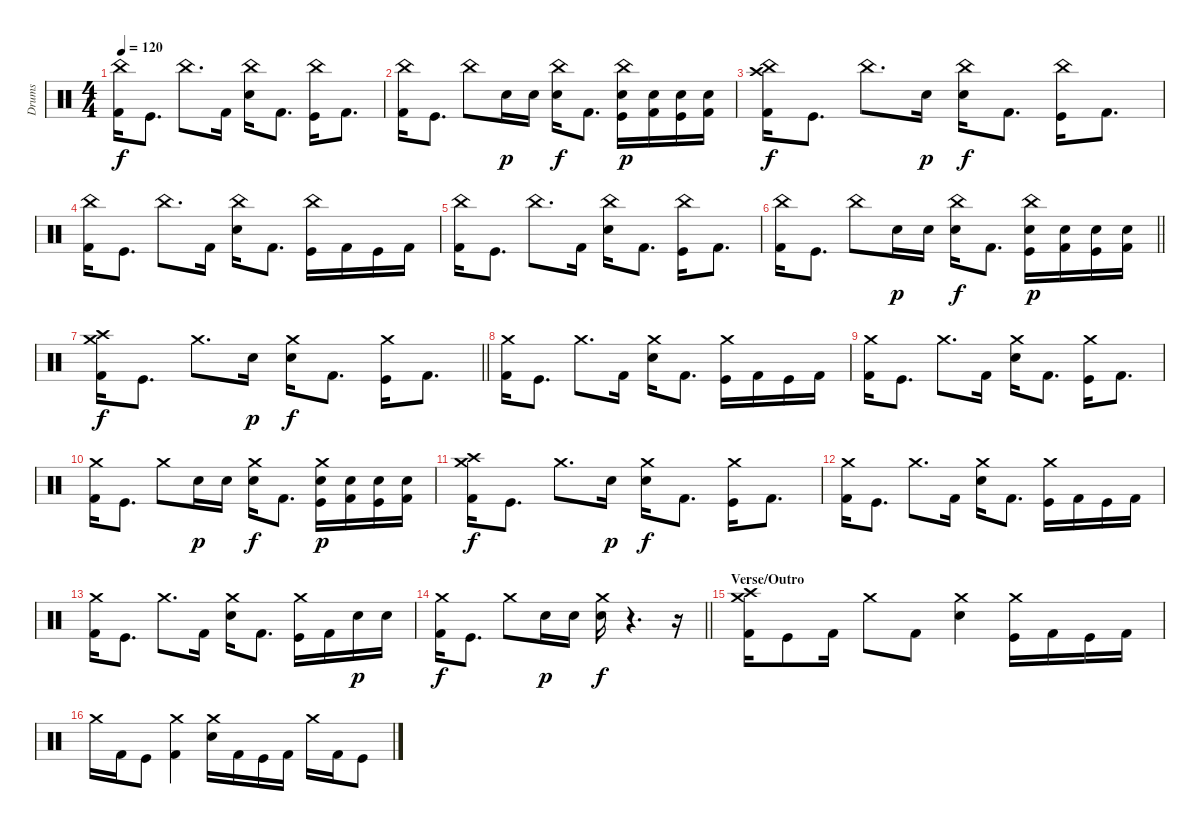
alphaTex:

\track ("Drums" "Drums") {instrument percussion}
\staff {score}
\articulation defaults
\ts (4 4)
\tempo 120
\clef neutral
\ks c
("China (hit)" "Kick (hit) 2").16{dy f} "Kick (hit)".8{d} "China (hit)".8{d} "Kick (hit) 2".16 ("China (hit)" "Electric Snare (hit)").16 "Kick (hit) 2".8{d} ("China (hit)" "Kick (hit)").16 "Kick (hit) 2".8{d} |
("China (hit)" "Kick (hit) 2").16 "Kick (hit)".8{d} "China (hit)".8 "Electric Snare (hit)".16{dy p} "Electric Snare (hit)".16 ("China (hit)" "Electric Snare (hit)").16{dy f} "Kick (hit) 2".8{d} ("China (hit)" "Electric Snare (hit)" "Kick (hit)").16{dy p} ("Electric Snare (hit)" "Kick (hit) 2").16 ("Electric Snare (hit)" "Kick (hit)").16 ("Electric Snare (hit)" "Kick (hit) 2").16 |
("China (hit)" "Crash high (hit)" "Kick (hit) 2").16{dy f} "Kick (hit)".8{d} "China (hit)".8{d} "Electric Snare (hit)".16{dy p} ("China (hit)" "Electric Snare (hit)").16{dy f} "Kick (hit) 2".8{d} ("China (hit)" "Kick (hit)").16 "Kick (hit) 2".8{d} |
("China (hit)" "Kick (hit) 2").16 "Kick (hit)".8{d} "China (hit)".8{d} "Kick (hit) 2".16 ("China (hit)" "Electric Snare (hit)").16 "Kick (hit) 2".8{d} ("China (hit)" "Kick (hit)").16 "Kick (hit) 2".16 "Kick (hit)".16 "Kick (hit) 2".16 |
("China (hit)" "Kick (hit) 2").16 "Kick (hit)".8{d} "China (hit)".8{d} "Kick (hit) 2".16 ("China (hit)" "Electric Snare (hit)").16 "Kick (hit) 2".8{d} ("China (hit)" "Kick (hit)").16 "Kick (hit) 2".8{d} |
\barLineRight lightlight
("China (hit)" "Kick (hit) 2").16 "Kick (hit)".8{d} "China (hit)".8 "Electric Snare (hit)".16{dy p} "Electric Snare (hit)".16 ("China (hit)" "Electric Snare (hit)").16{dy f} "Kick (hit) 2".8{d} ("China (hit)" "Electric Snare (hit)" "Kick (hit)").16{dy p} ("Electric Snare (hit)" "Kick (hit) 2").16 ("Electric Snare (hit)" "Kick (hit)").16 ("Electric Snare (hit)" "Kick (hit) 2").16 |
\section ("" "")
\barLineRight lightlight
("Crash medium (hit)" "Crash high (hit)" "Kick (hit) 2").16{dy f} "Kick (hit)".8{d} "Crash medium (hit)".8{d} "Electric Snare (hit)".16{dy p} ("Crash medium (hit)" "Electric Snare (hit)").16{dy f} "Kick (hit) 2".8{d} ("Crash medium (hit)" "Kick (hit)").16 "Kick (hit) 2".8{d} |
\section ("" "")
("Crash medium (hit)" "Kick (hit) 2").16 "Kick (hit)".8{d} "Crash medium (hit)".8{d} "Kick (hit) 2".16 ("Crash medium (hit)" "Electric Snare (hit)").16 "Kick (hit) 2".8{d} ("Crash medium (hit)" "Kick (hit)").16 "Kick (hit) 2".16 "Kick (hit)".16 "Kick (hit) 2".16 |
("Crash medium (hit)" "Kick (hit) 2").16 "Kick (hit)".8{d} "Crash medium (hit)".8{d} "Kick (hit) 2".16 ("Crash medium (hit)" "Electric Snare (hit)").16 "Kick (hit) 2".8{d} ("Crash medium (hit)" "Kick (hit)").16 "Kick (hit) 2".8{d} |
("Crash medium (hit)" "Kick (hit) 2").16 "Kick (hit)".8{d} "Crash medium (hit)".8 "Electric Snare (hit)".16{dy p} "Electric Snare (hit)".16 ("Crash medium (hit)" "Electric Snare (hit)").16{dy f} "Kick (hit) 2".8{d} ("Crash medium (hit)" "Electric Snare (hit)" "Kick (hit)").16{dy p} ("Electric Snare (hit)" "Kick (hit) 2").16 ("Electric Snare (hit)" "Kick (hit)").16 ("Electric Snare (hit)" "Kick (hit) 2").16 |
("Crash medium (hit)" "Crash high (hit)" "Kick (hit) 2").16{dy f} "Kick (hit)".8{d} "Crash medium (hit)".8{d} "Electric Snare (hit)".16{dy p} ("Crash medium (hit)" "Electric Snare (hit)").16{dy f} "Kick (hit) 2".8{d} ("Crash medium (hit)" "Kick (hit)").16 "Kick (hit) 2".8{d} |
("Crash medium (hit)" "Kick (hit) 2").16 "Kick (hit)".8{d} "Crash medium (hit)".8{d} "Kick (hit) 2".16 ("Crash medium (hit)" "Electric Snare (hit)").16 "Kick (hit) 2".8{d} ("Crash medium (hit)" "Kick (hit)").16 "Kick (hit) 2".16 "Kick (hit)".16 "Kick (hit) 2".16 |
("Crash medium (hit)" "Kick (hit) 2").16 "Kick (hit)".8{d} "Crash medium (hit)".8{d} "Kick (hit) 2".16 ("Crash medium (hit)" "Electric Snare (hit)").16 "Kick (hit) 2".8{d} ("Crash medium (hit)" "Kick (hit)").16 "Kick (hit) 2".16 "Electric Snare (hit)".16{dy p} "Electric Snare (hit)".16 |
\barLineRight lightlight
("Crash medium (hit)" "Kick (hit) 2").16{dy f} "Kick (hit)".8{d} "Crash medium (hit)".8 "Electric Snare (hit)".16{dy p} "Electric Snare (hit)".16 ("Crash medium (hit)" "Electric Snare (hit)").16{dy f} r.4{d} r.16 |
\section ("" "Verse/Outro")
("Crash medium (hit)" "Crash high (hit)" "Kick (hit) 2").16 "Kick (hit)".8 "Kick (hit) 2".16 "Crash medium (hit)".8 "Kick (hit) 2".8 ("Crash medium (hit)" "Electric Snare (hit)").4 ("Crash medium (hit)" "Kick (hit)").16 "Kick (hit) 2".16 "Kick (hit)".16 "Kick (hit) 2".16 |
"Crash medium (hit)".16 "Kick (hit) 2".16 "Kick (hit)".8 ("Crash medium (hit)" "Kick (hit) 2").4 ("Crash medium (hit)" "Electric Snare (hit)").16 "Kick (hit) 2".16 "Kick (hit)".16 "Kick (hit) 2".16 "Crash medium (hit)".16 "Kick (hit) 2".16 "Kick (hit)".8
